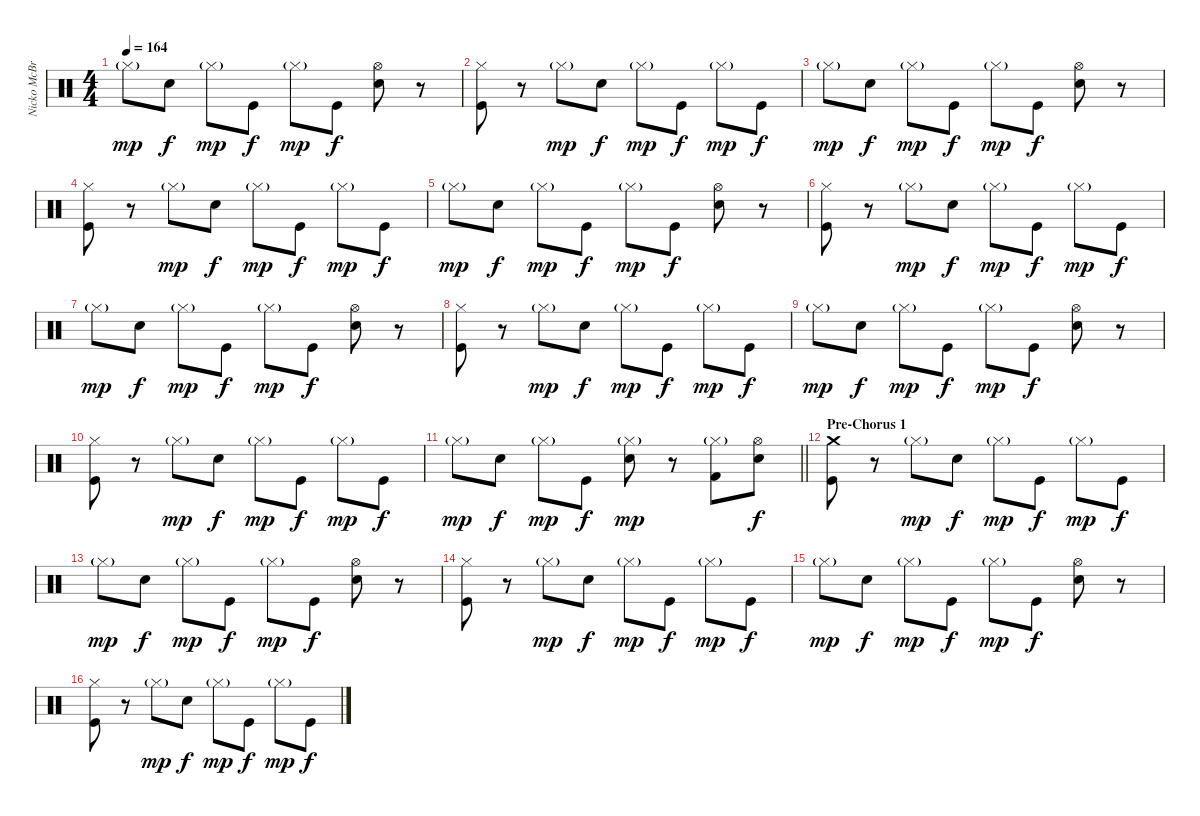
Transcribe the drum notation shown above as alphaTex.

\track ("Nicko McBrain" "Nicko McBr") {instrument percussion}
\staff {score}
\articulation defaults
\ts (4 4)
\tempo 164
\clef neutral
\ks c "Hi-Hat (closed)"{g}.8{dy mp} "Electric Snare (hit)".8{dy f} "Hi-Hat (closed)"{g}.8{dy mp} "Kick (hit)".8{dy f} "Hi-Hat (closed)"{g}.8{dy mp} "Kick (hit)".8{dy f}
("Hi-Hat (open)" "Electric Snare (hit)").8 r.8 |
("Hi-Hat (closed)" "Kick (hit)").8 r.8 "Hi-Hat (closed)"{g}.8{dy mp} "Electric Snare (hit)".8{dy f} "Hi-Hat (closed)"{g}.8{dy mp} "Kick (hit)".8{dy f} "Hi-Hat (closed)"{g}.8{dy mp} "Kick (hit)".8{dy f} |
"Hi-Hat (closed)"{g}.8{dy mp} "Electric Snare (hit)".8{dy f} "Hi-Hat (closed)"{g}.8{dy mp} "Kick (hit)".8{dy f} "Hi-Hat (closed)"{g}.8{dy mp} "Kick (hit)".8{dy f} ("Hi-Hat (open)" "Electric Snare (hit)").8 r.8 |
("Hi-Hat (closed)" "Kick (hit)").8 r.8 "Hi-Hat (closed)"{g}.8{dy mp} "Electric Snare (hit)".8{dy f} "Hi-Hat (closed)"{g}.8{dy mp} "Kick (hit)".8{dy f} "Hi-Hat (closed)"{g}.8{dy mp} "Kick (hit)".8{dy f} |
"Hi-Hat (closed)"{g}.8{dy mp} "Electric Snare (hit)".8{dy f} "Hi-Hat (closed)"{g}.8{dy mp} "Kick (hit)".8{dy f} "Hi-Hat (closed)"{g}.8{dy mp} "Kick (hit)".8{dy f} ("Hi-Hat (open)" "Electric Snare (hit)").8 r.8 |
("Hi-Hat (closed)" "Kick (hit)").8 r.8 "Hi-Hat (closed)"{g}.8{dy mp} "Electric Snare (hit)".8{dy f} "Hi-Hat (closed)"{g}.8{dy mp} "Kick (hit)".8{dy f} "Hi-Hat (closed)"{g}.8{dy mp} "Kick (hit)".8{dy f} |
"Hi-Hat (closed)"{g}.8{dy mp} "Electric Snare (hit)".8{dy f} "Hi-Hat (closed)"{g}.8{dy mp} "Kick (hit)".8{dy f} "Hi-Hat (closed)"{g}.8{dy mp} "Kick (hit)".8{dy f} ("Hi-Hat (open)" "Electric Snare (hit)").8 r.8 |
("Hi-Hat (closed)" "Kick (hit)").8 r.8 "Hi-Hat (closed)"{g}.8{dy mp} "Electric Snare (hit)".8{dy f} "Hi-Hat (closed)"{g}.8{dy mp} "Kick (hit)".8{dy f} "Hi-Hat (closed)"{g}.8{dy mp} "Kick (hit)".8{dy f} |
"Hi-Hat (closed)"{g}.8{dy mp} "Electric Snare (hit)".8{dy f} "Hi-Hat (closed)"{g}.8{dy mp} "Kick (hit)".8{dy f} "Hi-Hat (closed)"{g}.8{dy mp} "Kick (hit)".8{dy f} ("Hi-Hat (open)" "Electric Snare (hit)").8 r.8 |
("Hi-Hat (closed)" "Kick (hit)").8 r.8 "Hi-Hat (closed)"{g}.8{dy mp} "Electric Snare (hit)".8{dy f} "Hi-Hat (closed)"{g}.8{dy mp} "Kick (hit)".8{dy f} "Hi-Hat (closed)"{g}.8{dy mp} "Kick (hit)".8{dy f} |
\barLineRight lightlight "Hi-Hat (closed)"{g}.8{dy mp} "Electric Snare (hit)".8{dy f} "Hi-Hat (closed)"{g}.8{dy mp} "Kick (hit)".8{dy f}
("Hi-Hat (closed)"{g} "Electric Snare (hit)").8{dy mp} r.8 ("Hi-Hat (closed)"{g} "Kick (hit) 2").8 ("Hi-Hat (open)" "Electric Snare (hit)").8{dy f} |
\section ("" "Pre-Chorus 1")
("Crash medium (hit)" "Kick (hit)").8 r.8 "Hi-Hat (closed)"{g}.8{dy mp} "Electric Snare (hit)".8{dy f} "Hi-Hat (closed)"{g}.8{dy mp} "Kick (hit)".8{dy f} "Hi-Hat (closed)"{g}.8{dy mp} "Kick (hit)".8{dy f} |
"Hi-Hat (closed)"{g}.8{dy mp} "Electric Snare (hit)".8{dy f} "Hi-Hat (closed)"{g}.8{dy mp} "Kick (hit)".8{dy f} "Hi-Hat (closed)"{g}.8{dy mp} "Kick (hit)".8{dy f} ("Hi-Hat (open)" "Electric Snare (hit)").8 r.8 |
("Hi-Hat (closed)" "Kick (hit)").8 r.8 "Hi-Hat (closed)"{g}.8{dy mp} "Electric Snare (hit)".8{dy f} "Hi-Hat (closed)"{g}.8{dy mp} "Kick (hit)".8{dy f} "Hi-Hat (closed)"{g}.8{dy mp} "Kick (hit)".8{dy f} |
"Hi-Hat (closed)"{g}.8{dy mp} "Electric Snare (hit)".8{dy f} "Hi-Hat (closed)"{g}.8{dy mp} "Kick (hit)".8{dy f} "Hi-Hat (closed)"{g}.8{dy mp} "Kick (hit)".8{dy f} ("Hi-Hat (open)" "Electric Snare (hit)").8 r.8 |
("Hi-Hat (closed)" "Kick (hit)").8 r.8 "Hi-Hat (closed)"{g}.8{dy mp} "Electric Snare (hit)".8{dy f} "Hi-Hat (closed)"{g}.8{dy mp} "Kick (hit)".8{dy f} "Hi-Hat (closed)"{g}.8{dy mp} "Kick (hit)".8{dy f}
